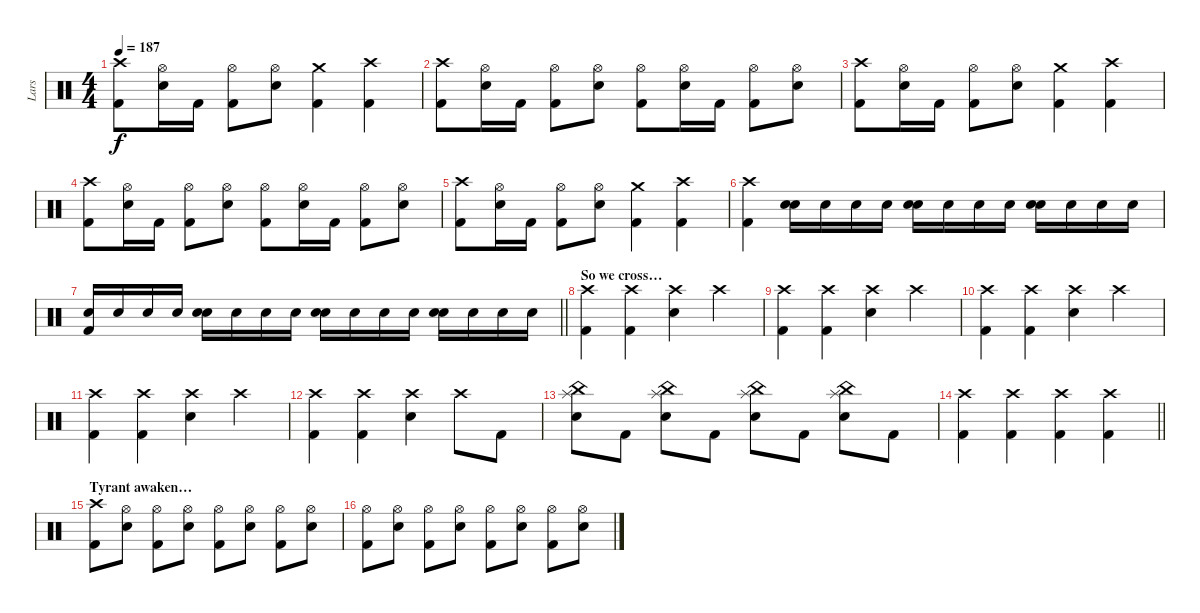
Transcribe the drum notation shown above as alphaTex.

\track ("Lars" "Lars") {instrument percussion}
\staff {score}
\articulation defaults
\ts (4 4)
\tempo 187
\clef neutral
\ks c
("Crash high (hit)" "Kick (hit) 2").8{dy f} ("Hi-Hat (open)" "Snare (hit) 2").16 "Kick (hit) 2".16 ("Hi-Hat (open)" "Kick (hit) 2").8 ("Hi-Hat (open)" "Snare (hit) 2").8 ("Crash medium (hit)" "Kick (hit) 2").4 ("Crash high (hit)" "Kick (hit) 2").4 |
("Crash high (hit)" "Kick (hit) 2").8 ("Hi-Hat (open)" "Snare (hit) 2").16 "Kick (hit) 2".16 ("Hi-Hat (open)" "Kick (hit) 2").8 ("Hi-Hat (open)" "Snare (hit) 2").8 ("Hi-Hat (open)" "Kick (hit) 2").8 ("Hi-Hat (open)" "Snare (hit) 2").16 "Kick (hit) 2".16 ("Hi-Hat (open)" "Kick (hit) 2").8 ("Hi-Hat (open)" "Snare (hit) 2").8 |
("Crash high (hit)" "Kick (hit) 2").8 ("Hi-Hat (open)" "Snare (hit) 2").16 "Kick (hit) 2".16 ("Hi-Hat (open)" "Kick (hit) 2").8 ("Hi-Hat (open)" "Snare (hit) 2").8 ("Crash medium (hit)" "Kick (hit) 2").4 ("Crash high (hit)" "Kick (hit) 2").4 |
("Crash high (hit)" "Kick (hit) 2").8 ("Hi-Hat (open)" "Snare (hit) 2").16 "Kick (hit) 2".16 ("Hi-Hat (open)" "Kick (hit) 2").8 ("Hi-Hat (open)" "Snare (hit) 2").8 ("Hi-Hat (open)" "Kick (hit) 2").8 ("Hi-Hat (open)" "Snare (hit) 2").16 "Kick (hit) 2".16 ("Hi-Hat (open)" "Kick (hit) 2").8 ("Hi-Hat (open)" "Snare (hit) 2").8 |
("Crash high (hit)" "Kick (hit) 2").8 ("Hi-Hat (open)" "Snare (hit) 2").16 "Kick (hit) 2".16 ("Hi-Hat (open)" "Kick (hit) 2").8 ("Hi-Hat (open)" "Snare (hit) 2").8 ("Crash medium (hit)" "Kick (hit) 2").4 ("Crash high (hit)" "Kick (hit) 2").4 |
("Crash high (hit)" "Kick (hit) 2").4 ("Electric Snare (hit)" "Snare (hit) 2").16 "Snare (hit) 2".16 "Snare (hit) 2".16 "Snare (hit) 2".16 ("Electric Snare (hit)" "Snare (hit) 2").16 "Snare (hit) 2".16 "Snare (hit) 2".16 "Snare (hit) 2".16 ("Electric Snare (hit)" "Snare (hit) 2").16 "Snare (hit) 2".16 "Snare (hit) 2".16 "Snare (hit) 2".16 |
\barLineRight lightlight
("Snare (hit) 2" "Kick (hit) 2").16 "Snare (hit) 2".16 "Snare (hit) 2".16 "Snare (hit) 2".16 ("Electric Snare (hit)" "Snare (hit) 2").16 "Snare (hit) 2".16 "Snare (hit) 2".16 "Snare (hit) 2".16 ("Electric Snare (hit)" "Snare (hit) 2").16 "Snare (hit) 2".16 "Snare (hit) 2".16 "Snare (hit) 2".16 ("Electric Snare (hit)" "Snare (hit) 2").16 "Snare (hit) 2".16 "Snare (hit) 2".16 "Snare (hit) 2".16 |
\section ("" "So we cross…")
("Crash high (hit)" "Kick (hit) 2").4 ("Crash high (hit)" "Kick (hit) 2").4 ("Crash high (hit)" "Snare (hit) 2").4 "Crash high (hit)".4 |
("Crash high (hit)" "Kick (hit) 2").4 ("Crash high (hit)" "Kick (hit) 2").4 ("Crash high (hit)" "Snare (hit) 2").4 "Crash high (hit)".4 |
("Crash high (hit)" "Kick (hit) 2").4 ("Crash high (hit)" "Kick (hit) 2").4 ("Crash high (hit)" "Snare (hit) 2").4 "Crash high (hit)".4 |
("Crash high (hit)" "Kick (hit) 2").4 ("Crash high (hit)" "Kick (hit) 2").4 ("Crash high (hit)" "Snare (hit) 2").4 "Crash high (hit)".4 |
("Crash high (hit)" "Kick (hit) 2").4 ("Crash high (hit)" "Kick (hit) 2").4 ("Crash high (hit)" "Snare (hit) 2").4 "Crash high (hit)".8 "Kick (hit) 2".8 |
("Splash (hit)" "China (hit)" "Snare (hit) 2").8 "Kick (hit) 2".8 ("Splash (hit)" "China (hit)" "Snare (hit) 2").8 "Kick (hit) 2".8 ("Splash (hit)" "China (hit)" "Snare (hit) 2").8 "Kick (hit) 2".8 ("Splash (hit)" "China (hit)" "Snare (hit) 2").8 "Kick (hit) 2".8 |
\barLineRight lightlight
("Crash high (hit)" "Kick (hit) 2").4 ("Crash high (hit)" "Kick (hit) 2").4 ("Crash high (hit)" "Kick (hit) 2").4 ("Crash high (hit)" "Kick (hit) 2").4 |
\section ("" "Tyrant awaken…")
("Crash high (hit)" "Kick (hit) 2").8 ("Hi-Hat (open)" "Snare (hit) 2").8 ("Hi-Hat (open)" "Kick (hit) 2").8 ("Hi-Hat (open)" "Snare (hit) 2").8 ("Hi-Hat (open)" "Kick (hit) 2").8 ("Hi-Hat (open)" "Snare (hit) 2").8 ("Hi-Hat (open)" "Kick (hit) 2").8 ("Hi-Hat (open)" "Snare (hit) 2").8 |
("Hi-Hat (open)" "Kick (hit) 2").8 ("Hi-Hat (open)" "Snare (hit) 2").8 ("Hi-Hat (open)" "Kick (hit) 2").8 ("Hi-Hat (open)" "Snare (hit) 2").8 ("Hi-Hat (open)" "Kick (hit) 2").8 ("Hi-Hat (open)" "Snare (hit) 2").8 ("Hi-Hat (open)" "Kick (hit) 2").8 ("Hi-Hat (open)" "Snare (hit) 2").8
